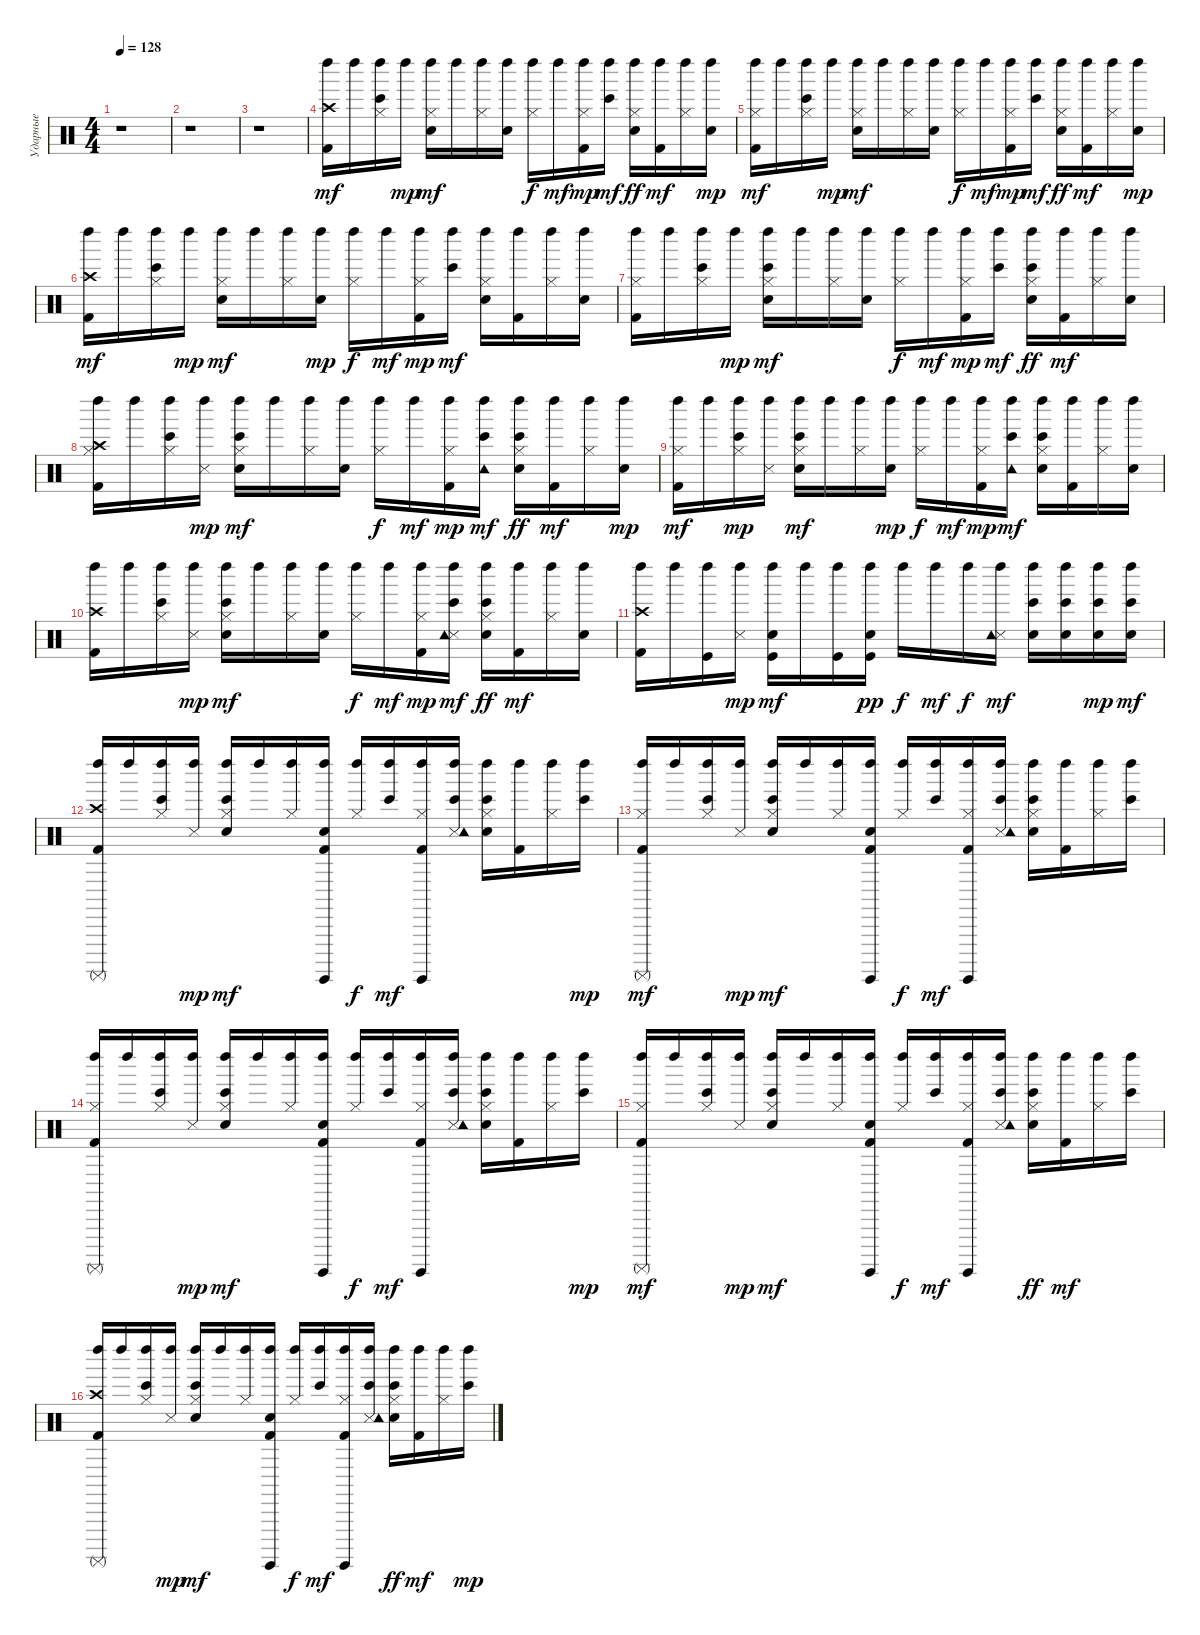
\track ("Ударные" "Ударные") {instrument percussion}
\staff {score}
\articulation defaults
\ts (4 4)
\tempo 128
\clef neutral
\ks c
r.1{dy mf} |
r.1 |
r.1 |
("Kick (hit) 2" "Crash high (hit)" "Left Maraca (hit)").16 "Left Maraca (hit)".16 ("Bongo High (hit)" "Hi-Hat (closed)" "Left Maraca (hit)").16 "Left Maraca (hit)".16{dy mp} ("Electric Snare (hit)" "Hi-Hat (closed)" "Left Maraca (hit)").16{dy mf} "Left Maraca (hit)".16 ("Hi-Hat (closed)" "Left Maraca (hit)").16 ("Electric Snare (hit)" "Left Maraca (hit)").16 ("Hi-Hat (closed)" "Left Maraca (hit)").16{dy f} "Left Maraca (hit)".16{dy mf} ("Kick (hit) 2" "Hi-Hat (closed)" "Left Maraca (hit)").16{dy mp} ("Bongo High (hit)" "Left Maraca (hit)").16{dy mf} ("Electric Snare (hit)" "Hi-Hat (closed)" "Left Maraca (hit)").16{dy ff} ("Kick (hit) 2" "Left Maraca (hit)").16{dy mf} ("Hi-Hat (closed)" "Left Maraca (hit)").16 ("Electric Snare (hit)" "Left Maraca (hit)").16{dy mp} |
("Kick (hit) 2" "Hi-Hat (closed)" "Left Maraca (hit)").16{dy mf} "Left Maraca (hit)".16 ("Bongo High (hit)" "Hi-Hat (closed)" "Left Maraca (hit)").16 "Left Maraca (hit)".16{dy mp} ("Electric Snare (hit)" "Hi-Hat (closed)" "Left Maraca (hit)").16{dy mf} "Left Maraca (hit)".16 ("Hi-Hat (closed)" "Left Maraca (hit)").16 ("Electric Snare (hit)" "Left Maraca (hit)").16 ("Hi-Hat (closed)" "Left Maraca (hit)").16{dy f} "Left Maraca (hit)".16{dy mf} ("Kick (hit) 2" "Hi-Hat (closed)" "Left Maraca (hit)").16{dy mp} ("Bongo High (hit)" "Left Maraca (hit)").16{dy mf} ("Electric Snare (hit)" "Hi-Hat (closed)" "Left Maraca (hit)").16{dy ff} ("Kick (hit) 2" "Left Maraca (hit)").16{dy mf} ("Hi-Hat (closed)" "Left Maraca (hit)").16 ("Electric Snare (hit)" "Left Maraca (hit)").16{dy mp} |
("Kick (hit) 2" "Crash high (hit)" "Left Maraca (hit)").16{dy mf} "Left Maraca (hit)".16 ("Bongo High (hit)" "Hi-Hat (closed)" "Left Maraca (hit)").16 "Left Maraca (hit)".16{dy mp} ("Electric Snare (hit)" "Hi-Hat (closed)" "Left Maraca (hit)").16{dy mf} "Left Maraca (hit)".16 ("Hi-Hat (closed)" "Left Maraca (hit)").16 ("Electric Snare (hit)" "Left Maraca (hit)").16{dy mp} ("Hi-Hat (closed)" "Left Maraca (hit)").16{dy f} "Left Maraca (hit)".16{dy mf} ("Kick (hit) 2" "Hi-Hat (closed)" "Left Maraca (hit)").16{dy mp} ("Bongo High (hit)" "Left Maraca (hit)").16{dy mf} ("Electric Snare (hit)" "Hi-Hat (closed)" "Left Maraca (hit)").16 ("Kick (hit) 2" "Left Maraca (hit)").16 ("Hi-Hat (closed)" "Left Maraca (hit)").16 ("Electric Snare (hit)" "Left Maraca (hit)").16 |
("Kick (hit) 2" "Hi-Hat (closed)" "Left Maraca (hit)").16 "Left Maraca (hit)".16 ("Bongo High (hit)" "Hi-Hat (closed)" "Left Maraca (hit)").16 "Left Maraca (hit)".16{dy mp} ("Bongo High (hit)" "Electric Snare (hit)" "Hi-Hat (closed)" "Left Maraca (hit)").16{dy mf} "Left Maraca (hit)".16 ("Hi-Hat (closed)" "Left Maraca (hit)").16 ("Electric Snare (hit)" "Left Maraca (hit)").16 ("Hi-Hat (closed)" "Left Maraca (hit)").16{dy f} "Left Maraca (hit)".16{dy mf} ("Kick (hit) 2" "Hi-Hat (closed)" "Left Maraca (hit)").16{dy mp} ("Bongo High (hit)" "Left Maraca (hit)").16{dy mf} ("Bongo High (hit)" "Electric Snare (hit)" "Hi-Hat (closed)" "Left Maraca (hit)").16{dy ff} ("Kick (hit) 2" "Left Maraca (hit)").16{dy mf} ("Hi-Hat (closed)" "Left Maraca (hit)").16 ("Electric Snare (hit)" "Left Maraca (hit)").16 |
("Kick (hit) 2" "Hi-Hat (closed)" "Crash high (hit)" "Left Maraca (hit)").16 "Left Maraca (hit)".16 ("Bongo High (hit)" "Hi-Hat (closed)" "Left Maraca (hit)").16 ("Snare (side stick) 3" "Left Maraca (hit)").16{dy mp} ("Bongo High (hit)" "Electric Snare (hit)" "Hi-Hat (closed)" "Left Maraca (hit)").16{dy mf} "Left Maraca (hit)".16 ("Hi-Hat (closed)" "Left Maraca (hit)").16 ("Electric Snare (hit)" "Left Maraca (hit)").16 ("Hi-Hat (closed)" "Left Maraca (hit)").16{dy f} "Left Maraca (hit)".16{dy mf} ("Kick (hit) 2" "Hi-Hat (closed)" "Left Maraca (hit)").16{dy mp} ("Bongo High (hit)" "Tambourine (hit)" "Left Maraca (hit)").16{dy mf} ("Bongo High (hit)" "Electric Snare (hit)" "Hi-Hat (closed)" "Left Maraca (hit)").16{dy ff} ("Kick (hit) 2" "Left Maraca (hit)").16{dy mf} ("Hi-Hat (closed)" "Left Maraca (hit)").16 ("Electric Snare (hit)" "Left Maraca (hit)").16{dy mp} |
("Kick (hit) 2" "Hi-Hat (closed)" "Left Maraca (hit)").16{dy mf} "Left Maraca (hit)".16 ("Bongo High (hit)" "Hi-Hat (closed)" "Left Maraca (hit)").16{dy mp} ("Snare (side stick) 3" "Left Maraca (hit)").16 ("Bongo High (hit)" "Electric Snare (hit)" "Hi-Hat (closed)" "Left Maraca (hit)").16{dy mf} "Left Maraca (hit)".16 ("Hi-Hat (closed)" "Left Maraca (hit)").16 ("Electric Snare (hit)" "Left Maraca (hit)").16{dy mp} ("Hi-Hat (closed)" "Left Maraca (hit)").16{dy f} "Left Maraca (hit)".16{dy mf} ("Kick (hit) 2" "Hi-Hat (closed)" "Left Maraca (hit)").16{dy mp} ("Bongo High (hit)" "Tambourine (hit)" "Left Maraca (hit)").16{dy mf} ("Bongo High (hit)" "Electric Snare (hit)" "Hi-Hat (closed)" "Left Maraca (hit)").16 ("Kick (hit) 2" "Left Maraca (hit)").16 ("Hi-Hat (closed)" "Left Maraca (hit)").16 ("Electric Snare (hit)" "Left Maraca (hit)").16 |
("Kick (hit) 2" "Crash high (hit)" "Left Maraca (hit)").16 "Left Maraca (hit)".16 ("Bongo High (hit)" "Hi-Hat (closed)" "Left Maraca (hit)").16 ("Snare (side stick) 3" "Left Maraca (hit)").16{dy mp} ("Bongo High (hit)" "Electric Snare (hit)" "Hi-Hat (closed)" "Left Maraca (hit)").16{dy mf} "Left Maraca (hit)".16 ("Hi-Hat (closed)" "Left Maraca (hit)").16 ("Electric Snare (hit)" "Left Maraca (hit)").16 ("Hi-Hat (closed)" "Left Maraca (hit)").16{dy f} "Left Maraca (hit)".16{dy mf} ("Kick (hit) 2" "Hi-Hat (closed)" "Left Maraca (hit)").16{dy mp} ("Bongo High (hit)" "Snare (side stick) 3" "Tambourine (hit)" "Left Maraca (hit)").16{dy mf} ("Bongo High (hit)" "Electric Snare (hit)" "Hi-Hat (closed)" "Left Maraca (hit)").16{dy ff} ("Kick (hit) 2" "Left Maraca (hit)").16{dy mf} ("Hi-Hat (closed)" "Left Maraca (hit)").16 ("Electric Snare (hit)" "Left Maraca (hit)").16 |
("Kick (hit) 2" "Crash high (hit)" "Left Maraca (hit)").16 "Left Maraca (hit)".16 ("Kick (hit)" "Left Maraca (hit)").16 ("Snare (side stick) 3" "Left Maraca (hit)").16{dy mp} ("Kick (hit)" "Electric Snare (hit)" "Left Maraca (hit)").16{dy mf} "Left Maraca (hit)".16 ("Kick (hit)" "Left Maraca (hit)").16 ("Electric Snare (hit)" "Left Maraca (hit)" "Kick (hit)").16{dy pp} "Left Maraca (hit)".16{dy f} "Left Maraca (hit)".16{dy mf} "Left Maraca (hit)".16{dy f} ("Snare (side stick) 3" "Tambourine (hit)" "Left Maraca (hit)").16{dy mf} ("Bongo High (hit)" "Electric Snare (hit)" "Left Maraca (hit)").16 ("Bongo High (hit)" "Electric Snare (hit)" "Left Maraca (hit)").16 ("Bongo High (hit)" "Electric Snare (hit)" "Left Maraca (hit)").16{dy mp} ("Bongo High (hit)" "Electric Snare (hit)" "Left Maraca (hit)").16{dy mf} |
("Kick (hit) 2" "Crash high (hit)" "Left Maraca (hit)" "Surdo (mute)").16 "Left Maraca (hit)".16 ("Bongo High (hit)" "Hi-Hat (closed)" "Left Maraca (hit)").16 ("Snare (side stick) 3" "Left Maraca (hit)").16{dy mp} ("Bongo High (hit)" "Electric Snare (hit)" "Hi-Hat (closed)" "Left Maraca (hit)").16{dy mf} "Left Maraca (hit)".16 ("Hi-Hat (closed)" "Left Maraca (hit)").16 ("Kick (hit) 2" "Electric Snare (hit)" "Left Maraca (hit)" "Surdo (hit)").16 ("Hi-Hat (closed)" "Left Maraca (hit)").16{dy f} ("Bongo High (hit)" "Left Maraca (hit)").16{dy mf} ("Kick (hit) 2" "Hi-Hat (closed)" "Left Maraca (hit)" "Surdo (hit)").16 ("Bongo High (hit)" "Snare (side stick) 3" "Tambourine (hit)" "Left Maraca (hit)").16 ("Bongo High (hit)" "Electric Snare (hit)" "Hi-Hat (closed)" "Left Maraca (hit)").16 ("Kick (hit) 2" "Left Maraca (hit)").16 ("Hi-Hat (closed)" "Left Maraca (hit)").16 ("Bongo High (hit)" "Left Maraca (hit)").16{dy mp} |
("Kick (hit) 2" "Hi-Hat (closed)" "Left Maraca (hit)" "Surdo (mute)").16{dy mf} "Left Maraca (hit)".16 ("Bongo High (hit)" "Hi-Hat (closed)" "Left Maraca (hit)").16 ("Snare (side stick) 3" "Left Maraca (hit)").16{dy mp} ("Bongo High (hit)" "Electric Snare (hit)" "Hi-Hat (closed)" "Left Maraca (hit)").16{dy mf} "Left Maraca (hit)".16 ("Hi-Hat (closed)" "Left Maraca (hit)").16 ("Kick (hit) 2" "Electric Snare (hit)" "Left Maraca (hit)" "Surdo (hit)").16 ("Hi-Hat (closed)" "Left Maraca (hit)").16{dy f} ("Bongo High (hit)" "Left Maraca (hit)").16{dy mf} ("Kick (hit) 2" "Hi-Hat (closed)" "Left Maraca (hit)" "Surdo (hit)").16 ("Bongo High (hit)" "Snare (side stick) 3" "Tambourine (hit)" "Left Maraca (hit)").16 ("Bongo High (hit)" "Electric Snare (hit)" "Hi-Hat (closed)" "Left Maraca (hit)").16 ("Kick (hit) 2" "Left Maraca (hit)").16 ("Hi-Hat (closed)" "Left Maraca (hit)").16 ("Bongo High (hit)" "Left Maraca (hit)").16 |
("Kick (hit) 2" "Hi-Hat (closed)" "Left Maraca (hit)" "Surdo (mute)").16 "Left Maraca (hit)".16 ("Bongo High (hit)" "Hi-Hat (closed)" "Left Maraca (hit)").16 ("Snare (side stick) 3" "Left Maraca (hit)").16{dy mp} ("Bongo High (hit)" "Electric Snare (hit)" "Hi-Hat (closed)" "Left Maraca (hit)").16{dy mf} "Left Maraca (hit)".16 ("Hi-Hat (closed)" "Left Maraca (hit)").16 ("Kick (hit) 2" "Electric Snare (hit)" "Left Maraca (hit)" "Surdo (hit)").16 ("Hi-Hat (closed)" "Left Maraca (hit)").16{dy f} ("Bongo High (hit)" "Left Maraca (hit)").16{dy mf} ("Kick (hit) 2" "Hi-Hat (closed)" "Left Maraca (hit)" "Surdo (hit)").16 ("Bongo High (hit)" "Snare (side stick) 3" "Tambourine (hit)" "Left Maraca (hit)").16 ("Bongo High (hit)" "Electric Snare (hit)" "Hi-Hat (closed)" "Left Maraca (hit)").16 ("Kick (hit) 2" "Left Maraca (hit)").16 ("Hi-Hat (closed)" "Left Maraca (hit)").16 ("Bongo High (hit)" "Left Maraca (hit)").16{dy mp} |
("Kick (hit) 2" "Hi-Hat (closed)" "Left Maraca (hit)" "Surdo (mute)").16{dy mf} "Left Maraca (hit)".16 ("Bongo High (hit)" "Hi-Hat (closed)" "Left Maraca (hit)").16 ("Snare (side stick) 3" "Left Maraca (hit)").16{dy mp} ("Bongo High (hit)" "Electric Snare (hit)" "Hi-Hat (closed)" "Left Maraca (hit)").16{dy mf} "Left Maraca (hit)".16 ("Hi-Hat (closed)" "Left Maraca (hit)").16 ("Kick (hit) 2" "Electric Snare (hit)" "Left Maraca (hit)" "Surdo (hit)").16 ("Hi-Hat (closed)" "Left Maraca (hit)").16{dy f} ("Bongo High (hit)" "Left Maraca (hit)").16{dy mf} ("Kick (hit) 2" "Hi-Hat (closed)" "Left Maraca (hit)" "Surdo (hit)").16 ("Bongo High (hit)" "Snare (side stick) 3" "Tambourine (hit)" "Left Maraca (hit)").16 ("Bongo High (hit)" "Electric Snare (hit)" "Hi-Hat (closed)" "Left Maraca (hit)").16{dy ff} ("Kick (hit) 2" "Left Maraca (hit)").16{dy mf} ("Hi-Hat (closed)" "Left Maraca (hit)").16 ("Bongo High (hit)" "Left Maraca (hit)").16 |
("Kick (hit) 2" "Crash high (hit)" "Left Maraca (hit)" "Surdo (mute)").16 "Left Maraca (hit)".16 ("Bongo High (hit)" "Hi-Hat (closed)" "Left Maraca (hit)").16 ("Snare (side stick) 3" "Left Maraca (hit)").16{dy mp} ("Bongo High (hit)" "Electric Snare (hit)" "Hi-Hat (closed)" "Left Maraca (hit)").16{dy mf} "Left Maraca (hit)".16 ("Hi-Hat (closed)" "Left Maraca (hit)").16 ("Kick (hit) 2" "Electric Snare (hit)" "Left Maraca (hit)" "Surdo (hit)").16 ("Hi-Hat (closed)" "Left Maraca (hit)").16{dy f} ("Bongo High (hit)" "Left Maraca (hit)").16{dy mf} ("Kick (hit) 2" "Hi-Hat (closed)" "Left Maraca (hit)" "Surdo (hit)").16 ("Bongo High (hit)" "Snare (side stick) 3" "Tambourine (hit)" "Left Maraca (hit)").16 ("Bongo High (hit)" "Electric Snare (hit)" "Hi-Hat (closed)" "Left Maraca (hit)").16{dy ff} ("Kick (hit) 2" "Left Maraca (hit)").16{dy mf} ("Hi-Hat (closed)" "Left Maraca (hit)").16 ("Bongo High (hit)" "Left Maraca (hit)").16{dy mp}
